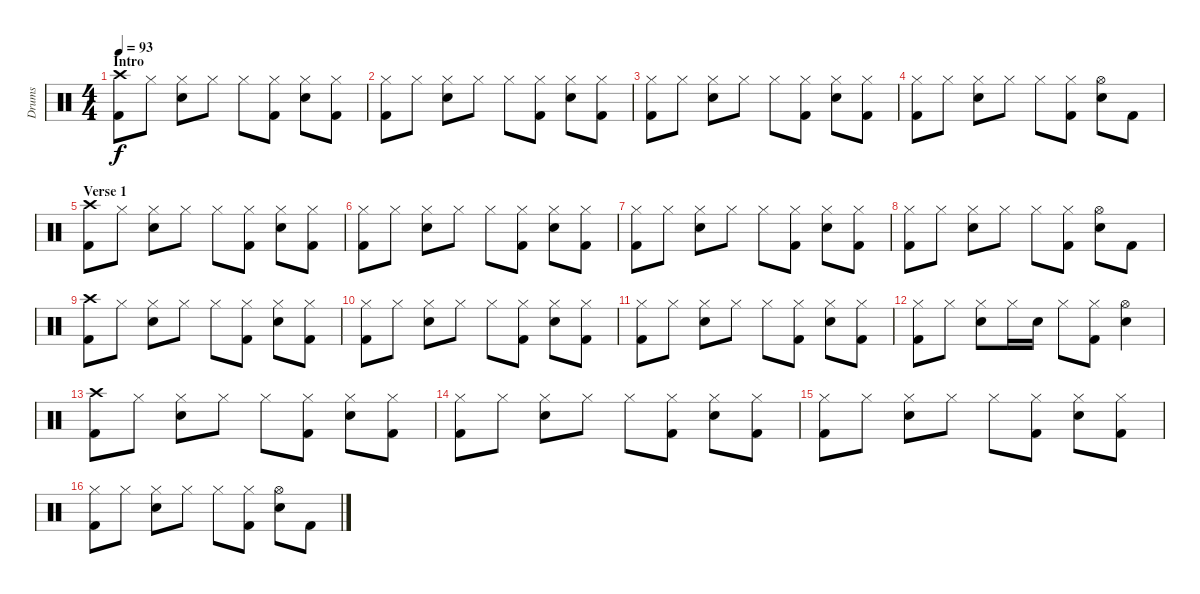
\track ("Drums" "Drums") {instrument percussion}
\staff {score}
\articulation defaults
\ts (4 4)
\section ("" "Intro")
\tempo 93
\clef neutral
\ks c
("Crash high (hit)" "Kick (hit) 2").8{dy f} "Hi-Hat (closed)".8 ("Hi-Hat (closed)" "Electric Snare (hit)").8 "Hi-Hat (closed)".8 "Hi-Hat (closed)".8 ("Hi-Hat (closed)" "Kick (hit) 2").8 ("Hi-Hat (closed)" "Electric Snare (hit)").8 ("Hi-Hat (closed)" "Kick (hit) 2").8 |
("Hi-Hat (closed)" "Kick (hit) 2").8 "Hi-Hat (closed)".8 ("Hi-Hat (closed)" "Electric Snare (hit)").8 "Hi-Hat (closed)".8 "Hi-Hat (closed)".8 ("Hi-Hat (closed)" "Kick (hit) 2").8 ("Hi-Hat (closed)" "Electric Snare (hit)").8 ("Hi-Hat (closed)" "Kick (hit) 2").8 |
("Hi-Hat (closed)" "Kick (hit) 2").8 "Hi-Hat (closed)".8 ("Hi-Hat (closed)" "Electric Snare (hit)").8 "Hi-Hat (closed)".8 "Hi-Hat (closed)".8 ("Hi-Hat (closed)" "Kick (hit) 2").8 ("Hi-Hat (closed)" "Electric Snare (hit)").8 ("Hi-Hat (closed)" "Kick (hit) 2").8 |
("Hi-Hat (closed)" "Kick (hit) 2").8 "Hi-Hat (closed)".8 ("Hi-Hat (closed)" "Electric Snare (hit)").8 "Hi-Hat (closed)".8 "Hi-Hat (closed)".8 ("Hi-Hat (closed)" "Kick (hit) 2").8 ("Hi-Hat (open)" "Electric Snare (hit)").8 "Kick (hit) 2".8 |
\section ("" "Verse 1")
("Crash high (hit)" "Kick (hit) 2").8 "Hi-Hat (closed)".8 ("Hi-Hat (closed)" "Electric Snare (hit)").8 "Hi-Hat (closed)".8 "Hi-Hat (closed)".8 ("Hi-Hat (closed)" "Kick (hit) 2").8 ("Hi-Hat (closed)" "Electric Snare (hit)").8 ("Hi-Hat (closed)" "Kick (hit) 2").8 |
("Hi-Hat (closed)" "Kick (hit) 2").8 "Hi-Hat (closed)".8 ("Hi-Hat (closed)" "Electric Snare (hit)").8 "Hi-Hat (closed)".8 "Hi-Hat (closed)".8 ("Hi-Hat (closed)" "Kick (hit) 2").8 ("Hi-Hat (closed)" "Electric Snare (hit)").8 ("Hi-Hat (closed)" "Kick (hit) 2").8 |
("Hi-Hat (closed)" "Kick (hit) 2").8 "Hi-Hat (closed)".8 ("Hi-Hat (closed)" "Electric Snare (hit)").8 "Hi-Hat (closed)".8 "Hi-Hat (closed)".8 ("Hi-Hat (closed)" "Kick (hit) 2").8 ("Hi-Hat (closed)" "Electric Snare (hit)").8 ("Hi-Hat (closed)" "Kick (hit) 2").8 |
("Hi-Hat (closed)" "Kick (hit) 2").8 "Hi-Hat (closed)".8 ("Hi-Hat (closed)" "Electric Snare (hit)").8 "Hi-Hat (closed)".8 "Hi-Hat (closed)".8 ("Hi-Hat (closed)" "Kick (hit) 2").8 ("Hi-Hat (open)" "Electric Snare (hit)").8 "Kick (hit) 2".8 |
("Crash high (hit)" "Kick (hit) 2").8 "Hi-Hat (closed)".8 ("Hi-Hat (closed)" "Electric Snare (hit)").8 "Hi-Hat (closed)".8 "Hi-Hat (closed)".8 ("Hi-Hat (closed)" "Kick (hit) 2").8 ("Hi-Hat (closed)" "Electric Snare (hit)").8 ("Hi-Hat (closed)" "Kick (hit) 2").8 |
("Hi-Hat (closed)" "Kick (hit) 2").8 "Hi-Hat (closed)".8 ("Hi-Hat (closed)" "Electric Snare (hit)").8 "Hi-Hat (closed)".8 "Hi-Hat (closed)".8 ("Hi-Hat (closed)" "Kick (hit) 2").8 ("Hi-Hat (closed)" "Electric Snare (hit)").8 ("Hi-Hat (closed)" "Kick (hit) 2").8 |
("Hi-Hat (closed)" "Kick (hit) 2").8 "Hi-Hat (closed)".8 ("Hi-Hat (closed)" "Electric Snare (hit)").8 "Hi-Hat (closed)".8 "Hi-Hat (closed)".8 ("Hi-Hat (closed)" "Kick (hit) 2").8 ("Hi-Hat (closed)" "Electric Snare (hit)").8 ("Hi-Hat (closed)" "Kick (hit) 2").8 |
("Hi-Hat (closed)" "Kick (hit) 2").8 "Hi-Hat (closed)".8 ("Hi-Hat (closed)" "Electric Snare (hit)").8 "Hi-Hat (closed)".16 "Electric Snare (hit)".16 "Hi-Hat (closed)".8 ("Hi-Hat (closed)" "Kick (hit) 2").8 ("Hi-Hat (open)" "Electric Snare (hit)").4 |
("Crash high (hit)" "Kick (hit) 2").8 "Hi-Hat (closed)".8 ("Hi-Hat (closed)" "Electric Snare (hit)").8 "Hi-Hat (closed)".8 "Hi-Hat (closed)".8 ("Hi-Hat (closed)" "Kick (hit) 2").8 ("Hi-Hat (closed)" "Electric Snare (hit)").8 ("Hi-Hat (closed)" "Kick (hit) 2").8 |
("Hi-Hat (closed)" "Kick (hit) 2").8 "Hi-Hat (closed)".8 ("Hi-Hat (closed)" "Electric Snare (hit)").8 "Hi-Hat (closed)".8 "Hi-Hat (closed)".8 ("Hi-Hat (closed)" "Kick (hit) 2").8 ("Hi-Hat (closed)" "Electric Snare (hit)").8 ("Hi-Hat (closed)" "Kick (hit) 2").8 |
("Hi-Hat (closed)" "Kick (hit) 2").8 "Hi-Hat (closed)".8 ("Hi-Hat (closed)" "Electric Snare (hit)").8 "Hi-Hat (closed)".8 "Hi-Hat (closed)".8 ("Hi-Hat (closed)" "Kick (hit) 2").8 ("Hi-Hat (closed)" "Electric Snare (hit)").8 ("Hi-Hat (closed)" "Kick (hit) 2").8 |
("Hi-Hat (closed)" "Kick (hit) 2").8 "Hi-Hat (closed)".8 ("Hi-Hat (closed)" "Electric Snare (hit)").8 "Hi-Hat (closed)".8 "Hi-Hat (closed)".8 ("Hi-Hat (closed)" "Kick (hit) 2").8 ("Hi-Hat (open)" "Electric Snare (hit)").8 "Kick (hit) 2".8
